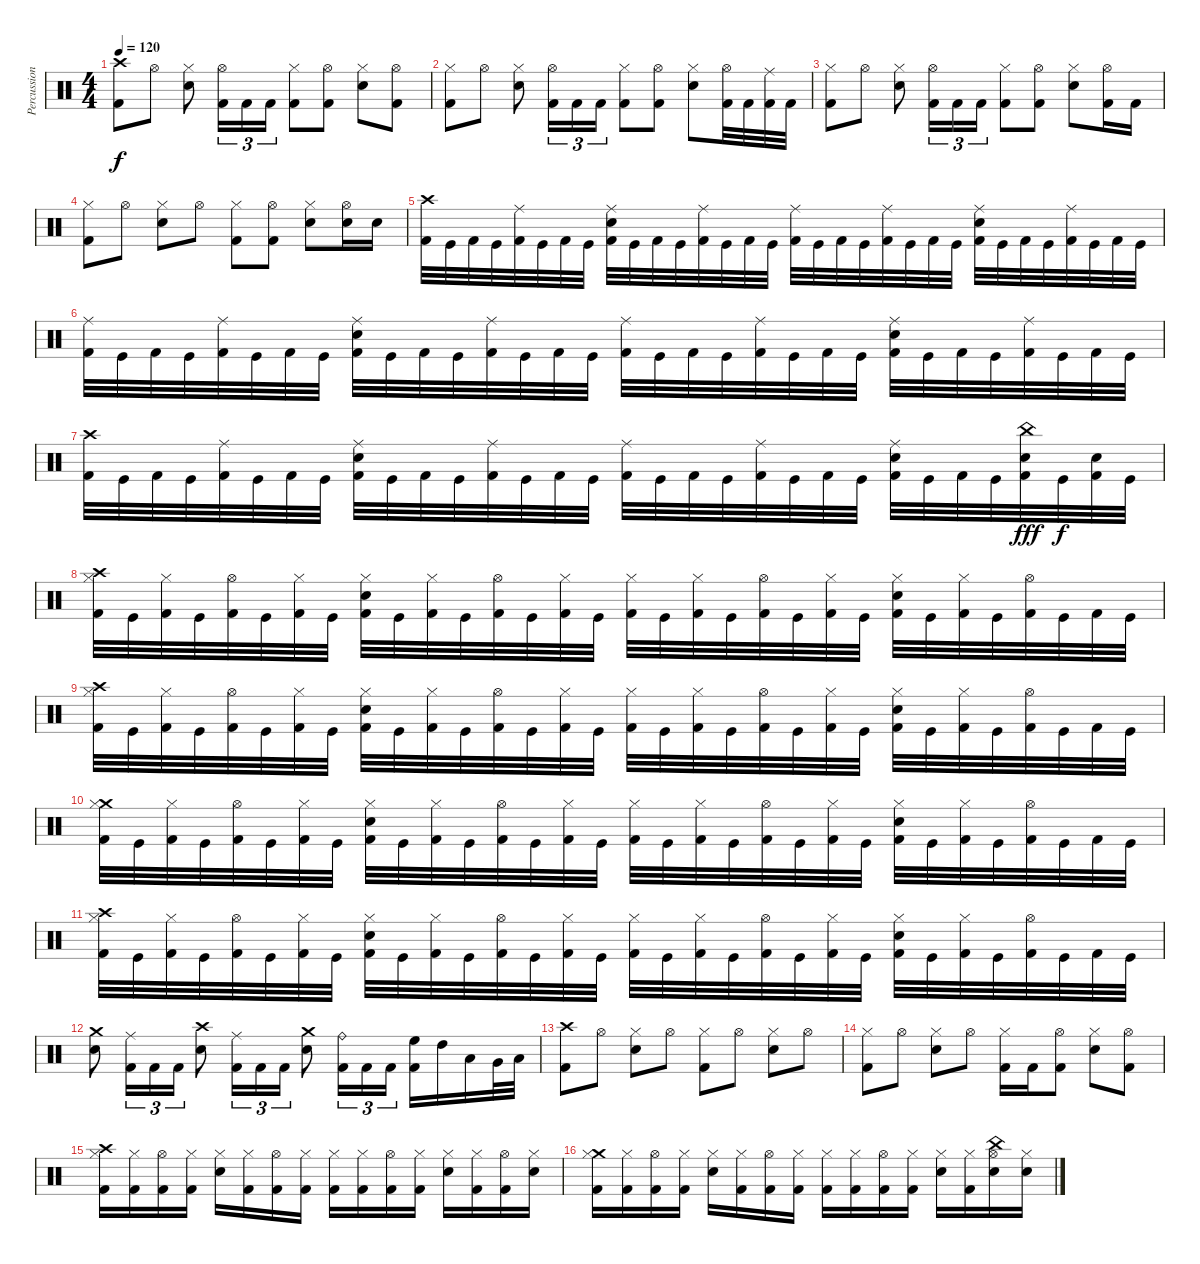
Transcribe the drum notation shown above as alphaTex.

\track ("Percussion" "Percussion") {instrument percussion}
\staff {score}
\articulation defaults
\ts (4 4)
\tempo 120
\clef neutral
\ks c
("Crash high (hit)" "Kick (hit) 2").8{dy f} "Hi-Hat (open)".8 ("Hi-Hat (closed)" "Snare (hit) 2").8 ("Hi-Hat (open)" "Kick (hit) 2").16{tu (3 2)} "Kick (hit) 2".16{tu (3 2)} "Kick (hit) 2".16{tu (3 2)} ("Hi-Hat (closed)" "Kick (hit) 2").8 ("Hi-Hat (open)" "Kick (hit) 2").8 ("Hi-Hat (closed)" "Snare (hit) 2").8 ("Hi-Hat (open)" "Kick (hit) 2").8 |
("Hi-Hat (closed)" "Kick (hit) 2").8 "Hi-Hat (open)".8 ("Hi-Hat (closed)" "Snare (hit) 2").8 ("Hi-Hat (open)" "Kick (hit) 2").16{tu (3 2)} "Kick (hit) 2".16{tu (3 2)} "Kick (hit) 2".16{tu (3 2)} ("Hi-Hat (closed)" "Kick (hit) 2").8 ("Hi-Hat (open)" "Kick (hit) 2").8 ("Hi-Hat (closed)" "Snare (hit) 2").8 ("Hi-Hat (open)" "Kick (hit) 2").32 "Kick (hit) 2".32 ("Ride (middle)" "Kick (hit) 2").32 "Kick (hit) 2".32 |
("Hi-Hat (closed)" "Kick (hit) 2").8 "Hi-Hat (open)".8 ("Hi-Hat (closed)" "Snare (hit) 2").8 ("Hi-Hat (open)" "Kick (hit) 2").16{tu (3 2)} "Kick (hit) 2".16{tu (3 2)} "Kick (hit) 2".16{tu (3 2)} ("Hi-Hat (closed)" "Kick (hit) 2").8 ("Hi-Hat (open)" "Kick (hit) 2").8 ("Hi-Hat (closed)" "Snare (hit) 2").8 ("Hi-Hat (open)" "Kick (hit) 2").16 "Kick (hit) 2".16 |
("Hi-Hat (closed)" "Kick (hit) 2").8 "Hi-Hat (open)".8 ("Hi-Hat (closed)" "Snare (hit) 2").8 "Hi-Hat (open)".8 ("Hi-Hat (closed)" "Kick (hit) 2").8 ("Hi-Hat (open)" "Kick (hit) 2").8 ("Hi-Hat (closed)" "Snare (hit) 2").8 ("Hi-Hat (open)" "Snare (hit) 2").16 "Snare (hit) 2".16 |
("Crash high (hit)" "Kick (hit) 2").32 "Kick (hit)".32 "Kick (hit) 2".32 "Kick (hit)".32 ("Ride (middle)" "Kick (hit) 2").32 "Kick (hit)".32 "Kick (hit) 2".32 "Kick (hit)".32 ("Ride (middle)" "Snare (hit) 2" "Kick (hit) 2").32 "Kick (hit)".32 "Kick (hit) 2".32 "Kick (hit)".32 ("Ride (middle)" "Kick (hit) 2").32 "Kick (hit)".32 "Kick (hit) 2".32 "Kick (hit)".32 ("Ride (middle)" "Kick (hit) 2").32 "Kick (hit)".32 "Kick (hit) 2".32 "Kick (hit)".32 ("Ride (middle)" "Kick (hit) 2").32 "Kick (hit)".32 "Kick (hit) 2".32 "Kick (hit)".32 ("Ride (middle)" "Snare (hit) 2" "Kick (hit) 2").32 "Kick (hit)".32 "Kick (hit) 2".32 "Kick (hit)".32 ("Ride (middle)" "Kick (hit) 2").32 "Kick (hit)".32 "Kick (hit) 2".32 "Kick (hit)".32 |
("Ride (middle)" "Kick (hit) 2").32 "Kick (hit)".32 "Kick (hit) 2".32 "Kick (hit)".32 ("Ride (middle)" "Kick (hit) 2").32 "Kick (hit)".32 "Kick (hit) 2".32 "Kick (hit)".32 ("Ride (middle)" "Snare (hit) 2" "Kick (hit) 2").32 "Kick (hit)".32 "Kick (hit) 2".32 "Kick (hit)".32 ("Ride (middle)" "Kick (hit) 2").32 "Kick (hit)".32 "Kick (hit) 2".32 "Kick (hit)".32 ("Ride (middle)" "Kick (hit) 2").32 "Kick (hit)".32 "Kick (hit) 2".32 "Kick (hit)".32 ("Ride (middle)" "Kick (hit) 2").32 "Kick (hit)".32 "Kick (hit) 2".32 "Kick (hit)".32 ("Ride (middle)" "Snare (hit) 2" "Kick (hit) 2").32 "Kick (hit)".32 "Kick (hit) 2".32 "Kick (hit)".32 ("Ride (middle)" "Kick (hit) 2").32 "Kick (hit)".32 "Kick (hit) 2".32 "Kick (hit)".32 |
("Crash high (hit)" "Kick (hit) 2").32 "Kick (hit)".32 "Kick (hit) 2".32 "Kick (hit)".32 ("Ride (middle)" "Kick (hit) 2").32 "Kick (hit)".32 "Kick (hit) 2".32 "Kick (hit)".32 ("Ride (middle)" "Snare (hit) 2" "Kick (hit) 2").32 "Kick (hit)".32 "Kick (hit) 2".32 "Kick (hit)".32 ("Ride (middle)" "Kick (hit) 2").32 "Kick (hit)".32 "Kick (hit) 2".32 "Kick (hit)".32 ("Ride (middle)" "Kick (hit) 2").32 "Kick (hit)".32 "Kick (hit) 2".32 "Kick (hit)".32 ("Ride (middle)" "Kick (hit) 2").32 "Kick (hit)".32 "Kick (hit) 2".32 "Kick (hit)".32 ("Ride (middle)" "Snare (hit) 2" "Kick (hit) 2").32 "Kick (hit)".32 "Kick (hit) 2".32 "Kick (hit)".32 ("China (hit)" "Snare (hit) 2" "Kick (hit) 2").32{dy fff} "Kick (hit)".32{dy f} ("Snare (hit) 2" "Kick (hit) 2").32 "Kick (hit)".32 |
("Crash high (hit)" "Hi-Hat (closed)" "Kick (hit) 2").32 "Kick (hit)".32 ("Hi-Hat (closed)" "Kick (hit) 2").32 "Kick (hit)".32 ("Hi-Hat (open)" "Kick (hit) 2").32 "Kick (hit)".32 ("Hi-Hat (closed)" "Kick (hit) 2").32 "Kick (hit)".32 ("Hi-Hat (closed)" "Snare (hit) 2" "Kick (hit) 2").32 "Kick (hit)".32 ("Hi-Hat (closed)" "Kick (hit) 2").32 "Kick (hit)".32 ("Hi-Hat (open)" "Kick (hit) 2").32 "Kick (hit)".32 ("Hi-Hat (closed)" "Kick (hit) 2").32 "Kick (hit)".32 ("Hi-Hat (closed)" "Kick (hit) 2").32 "Kick (hit)".32 ("Hi-Hat (closed)" "Kick (hit) 2").32 "Kick (hit)".32 ("Hi-Hat (open)" "Kick (hit) 2").32 "Kick (hit)".32 ("Hi-Hat (closed)" "Kick (hit) 2").32 "Kick (hit)".32 ("Hi-Hat (closed)" "Snare (hit) 2" "Kick (hit) 2").32 "Kick (hit)".32 ("Hi-Hat (closed)" "Kick (hit) 2").32 "Kick (hit)".32 ("Hi-Hat (open)" "Kick (hit) 2").32 "Kick (hit)".32 "Kick (hit) 2".32 "Kick (hit)".32 |
("Crash high (hit)" "Hi-Hat (closed)" "Kick (hit) 2").32 "Kick (hit)".32 ("Hi-Hat (closed)" "Kick (hit) 2").32 "Kick (hit)".32 ("Hi-Hat (open)" "Kick (hit) 2").32 "Kick (hit)".32 ("Hi-Hat (closed)" "Kick (hit) 2").32 "Kick (hit)".32 ("Hi-Hat (closed)" "Snare (hit) 2" "Kick (hit) 2").32 "Kick (hit)".32 ("Hi-Hat (closed)" "Kick (hit) 2").32 "Kick (hit)".32 ("Hi-Hat (open)" "Kick (hit) 2").32 "Kick (hit)".32 ("Hi-Hat (closed)" "Kick (hit) 2").32 "Kick (hit)".32 ("Hi-Hat (closed)" "Kick (hit) 2").32 "Kick (hit)".32 ("Hi-Hat (closed)" "Kick (hit) 2").32 "Kick (hit)".32 ("Hi-Hat (open)" "Kick (hit) 2").32 "Kick (hit)".32 ("Hi-Hat (closed)" "Kick (hit) 2").32 "Kick (hit)".32 ("Hi-Hat (closed)" "Snare (hit) 2" "Kick (hit) 2").32 "Kick (hit)".32 ("Hi-Hat (closed)" "Kick (hit) 2").32 "Kick (hit)".32 ("Hi-Hat (open)" "Kick (hit) 2").32 "Kick (hit)".32 "Kick (hit) 2".32 "Kick (hit)".32 |
("Crash medium (hit)" "Hi-Hat (closed)" "Kick (hit) 2").32 "Kick (hit)".32 ("Hi-Hat (closed)" "Kick (hit) 2").32 "Kick (hit)".32 ("Hi-Hat (open)" "Kick (hit) 2").32 "Kick (hit)".32 ("Hi-Hat (closed)" "Kick (hit) 2").32 "Kick (hit)".32 ("Hi-Hat (closed)" "Snare (hit) 2" "Kick (hit) 2").32 "Kick (hit)".32 ("Hi-Hat (closed)" "Kick (hit) 2").32 "Kick (hit)".32 ("Hi-Hat (open)" "Kick (hit) 2").32 "Kick (hit)".32 ("Hi-Hat (closed)" "Kick (hit) 2").32 "Kick (hit)".32 ("Hi-Hat (closed)" "Kick (hit) 2").32 "Kick (hit)".32 ("Hi-Hat (closed)" "Kick (hit) 2").32 "Kick (hit)".32 ("Hi-Hat (open)" "Kick (hit) 2").32 "Kick (hit)".32 ("Hi-Hat (closed)" "Kick (hit) 2").32 "Kick (hit)".32 ("Hi-Hat (closed)" "Snare (hit) 2" "Kick (hit) 2").32 "Kick (hit)".32 ("Hi-Hat (closed)" "Kick (hit) 2").32 "Kick (hit)".32 ("Hi-Hat (open)" "Kick (hit) 2").32 "Kick (hit)".32 "Kick (hit) 2".32 "Kick (hit)".32 |
("Crash high (hit)" "Hi-Hat (closed)" "Kick (hit) 2").32 "Kick (hit)".32 ("Hi-Hat (closed)" "Kick (hit) 2").32 "Kick (hit)".32 ("Hi-Hat (open)" "Kick (hit) 2").32 "Kick (hit)".32 ("Hi-Hat (closed)" "Kick (hit) 2").32 "Kick (hit)".32 ("Hi-Hat (closed)" "Snare (hit) 2" "Kick (hit) 2").32 "Kick (hit)".32 ("Hi-Hat (closed)" "Kick (hit) 2").32 "Kick (hit)".32 ("Hi-Hat (open)" "Kick (hit) 2").32 "Kick (hit)".32 ("Hi-Hat (closed)" "Kick (hit) 2").32 "Kick (hit)".32 ("Hi-Hat (closed)" "Kick (hit) 2").32 "Kick (hit)".32 ("Hi-Hat (closed)" "Kick (hit) 2").32 "Kick (hit)".32 ("Hi-Hat (open)" "Kick (hit) 2").32 "Kick (hit)".32 ("Hi-Hat (closed)" "Kick (hit) 2").32 "Kick (hit)".32 ("Hi-Hat (closed)" "Snare (hit) 2" "Kick (hit) 2").32 "Kick (hit)".32 ("Hi-Hat (closed)" "Kick (hit) 2").32 "Kick (hit)".32 ("Hi-Hat (open)" "Kick (hit) 2").32 "Kick (hit)".32 "Kick (hit) 2".32 "Kick (hit)".32 |
("Crash medium (hit)" "Snare (hit) 2").8 ("Ride (middle)" "Kick (hit) 2").16{tu (3 2)} "Kick (hit) 2".16{tu (3 2)} "Kick (hit) 2".16{tu (3 2)} ("Crash high (hit)" "Snare (hit) 2").8 ("Ride (middle)" "Kick (hit) 2").16{tu (3 2)} "Kick (hit) 2".16{tu (3 2)} "Kick (hit) 2".16{tu (3 2)} ("Crash medium (hit)" "Snare (hit) 2").8 ("Ride (bell)" "Kick (hit) 2").16{tu (3 2)} "Kick (hit) 2".16{tu (3 2)} "Kick (hit) 2".16{tu (3 2)} ("High Floor Tom (hit)" "Kick (hit) 2").16 "High Tom (hit)".16 "Low Tom (hit)".16 "Very Low Tom (hit)".32 "Low Floor Tom (hit)".32 |
("Crash high (hit)" "Kick (hit) 2").8 "Hi-Hat (open)".8 ("Hi-Hat (closed)" "Snare (hit) 2").8 "Hi-Hat (open)".8 ("Hi-Hat (closed)" "Kick (hit) 2").8 "Hi-Hat (open)".8 ("Hi-Hat (closed)" "Snare (hit) 2").8 "Hi-Hat (open)".8 |
("Hi-Hat (closed)" "Kick (hit) 2").8 "Hi-Hat (open)".8 ("Hi-Hat (closed)" "Snare (hit) 2").8 "Hi-Hat (open)".8 ("Hi-Hat (closed)" "Kick (hit) 2").16 "Kick (hit) 2".16 ("Hi-Hat (open)" "Kick (hit) 2").8 ("Hi-Hat (closed)" "Snare (hit) 2").8 ("Hi-Hat (open)" "Kick (hit) 2").8 |
("Crash high (hit)" "Hi-Hat (closed)" "Kick (hit) 2").16 ("Hi-Hat (closed)" "Kick (hit) 2").16 ("Hi-Hat (open)" "Kick (hit) 2").16 ("Hi-Hat (closed)" "Kick (hit) 2").16 ("Hi-Hat (closed)" "Snare (hit) 2").16 ("Hi-Hat (closed)" "Kick (hit) 2").16 ("Hi-Hat (open)" "Kick (hit) 2").16 ("Hi-Hat (closed)" "Kick (hit) 2").16 ("Hi-Hat (closed)" "Kick (hit) 2").16 ("Hi-Hat (closed)" "Kick (hit) 2").16 ("Hi-Hat (open)" "Kick (hit) 2").16 ("Hi-Hat (closed)" "Kick (hit) 2").16 ("Hi-Hat (closed)" "Snare (hit) 2").16 ("Hi-Hat (closed)" "Kick (hit) 2").16 ("Hi-Hat (open)" "Kick (hit) 2").16 ("Hi-Hat (closed)" "Snare (hit) 2").16 |
("Crash medium (hit)" "Hi-Hat (closed)" "Kick (hit) 2").16 ("Hi-Hat (closed)" "Kick (hit) 2").16 ("Hi-Hat (open)" "Kick (hit) 2").16 ("Hi-Hat (closed)" "Kick (hit) 2").16 ("Hi-Hat (closed)" "Snare (hit) 2").16 ("Hi-Hat (closed)" "Kick (hit) 2").16 ("Hi-Hat (open)" "Kick (hit) 2").16 ("Hi-Hat (closed)" "Kick (hit) 2").16 ("Hi-Hat (closed)" "Kick (hit) 2").16 ("Hi-Hat (closed)" "Kick (hit) 2").16 ("Hi-Hat (open)" "Kick (hit) 2").16 ("Hi-Hat (closed)" "Kick (hit) 2").16 ("Hi-Hat (closed)" "Snare (hit) 2").16 ("Hi-Hat (closed)" "Kick (hit) 2").16 ("China (hit)" "Hi-Hat (open)" "Snare (hit) 2").16 ("Hi-Hat (closed)" "Snare (hit) 2").16
